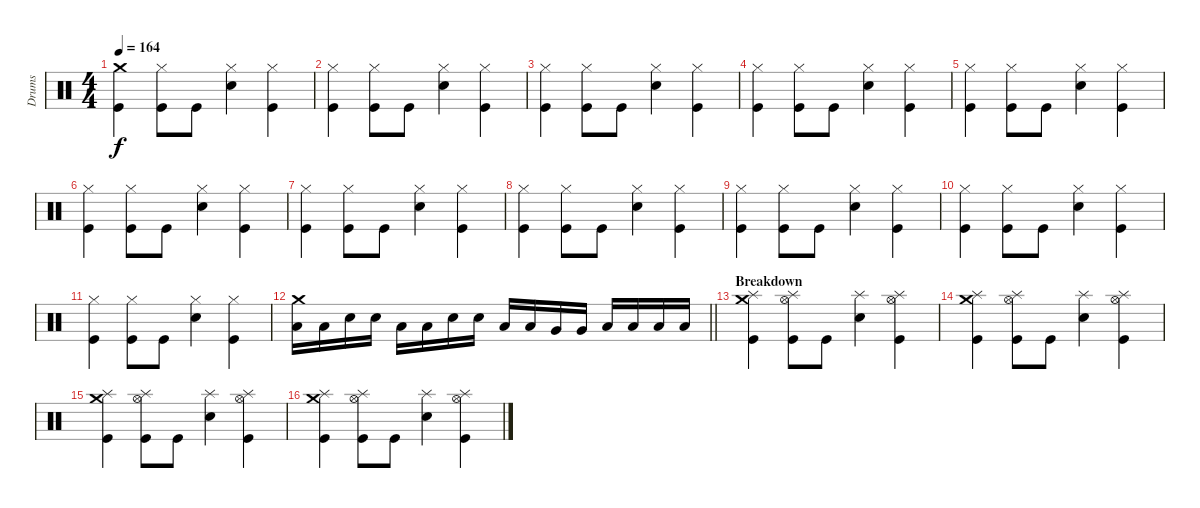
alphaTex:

\track ("Drums" "Drums") {instrument percussion}
\staff {score}
\articulation defaults
\ts (4 4)
\section ("" "")
\tempo 164
\clef neutral
\ks c
("Crash medium (hit)" "Kick (hit)").4{dy f} ("Hi-Hat (closed)" "Kick (hit)").8 "Kick (hit)".8 ("Hi-Hat (closed)" "Electric Snare (hit)").4 ("Hi-Hat (closed)" "Kick (hit)").4 |
("Hi-Hat (closed)" "Kick (hit)").4 ("Hi-Hat (closed)" "Kick (hit)").8 "Kick (hit)".8 ("Hi-Hat (closed)" "Electric Snare (hit)").4 ("Hi-Hat (closed)" "Kick (hit)").4 |
("Hi-Hat (closed)" "Kick (hit)").4 ("Hi-Hat (closed)" "Kick (hit)").8 "Kick (hit)".8 ("Hi-Hat (closed)" "Electric Snare (hit)").4 ("Hi-Hat (closed)" "Kick (hit)").4 |
("Hi-Hat (closed)" "Kick (hit)").4 ("Hi-Hat (closed)" "Kick (hit)").8 "Kick (hit)".8 ("Hi-Hat (closed)" "Electric Snare (hit)").4 ("Hi-Hat (closed)" "Kick (hit)").4 |
("Hi-Hat (closed)" "Kick (hit)").4 ("Hi-Hat (closed)" "Kick (hit)").8 "Kick (hit)".8 ("Hi-Hat (closed)" "Electric Snare (hit)").4 ("Hi-Hat (closed)" "Kick (hit)").4 |
("Hi-Hat (closed)" "Kick (hit)").4 ("Hi-Hat (closed)" "Kick (hit)").8 "Kick (hit)".8 ("Hi-Hat (closed)" "Electric Snare (hit)").4 ("Hi-Hat (closed)" "Kick (hit)").4 |
("Hi-Hat (closed)" "Kick (hit)").4 ("Hi-Hat (closed)" "Kick (hit)").8 "Kick (hit)".8 ("Hi-Hat (closed)" "Electric Snare (hit)").4 ("Hi-Hat (closed)" "Kick (hit)").4 |
("Hi-Hat (closed)" "Kick (hit)").4 ("Hi-Hat (closed)" "Kick (hit)").8 "Kick (hit)".8 ("Hi-Hat (closed)" "Electric Snare (hit)").4 ("Hi-Hat (closed)" "Kick (hit)").4 |
("Hi-Hat (closed)" "Kick (hit)").4 ("Hi-Hat (closed)" "Kick (hit)").8 "Kick (hit)".8 ("Hi-Hat (closed)" "Electric Snare (hit)").4 ("Hi-Hat (closed)" "Kick (hit)").4 |
("Hi-Hat (closed)" "Kick (hit)").4 ("Hi-Hat (closed)" "Kick (hit)").8 "Kick (hit)".8 ("Hi-Hat (closed)" "Electric Snare (hit)").4 ("Hi-Hat (closed)" "Kick (hit)").4 |
("Hi-Hat (closed)" "Kick (hit)").4 ("Hi-Hat (closed)" "Kick (hit)").8 "Kick (hit)".8 ("Hi-Hat (closed)" "Electric Snare (hit)").4 ("Hi-Hat (closed)" "Kick (hit)").4 |
\barLineRight lightlight
("Crash medium (hit)" "Low Tom (hit)").16 "Low Tom (hit)".16 "Electric Snare (hit)".16 "Electric Snare (hit)".16 "Low Tom (hit)".16 "Low Tom (hit)".16 "Electric Snare (hit)".16 "Electric Snare (hit)".16 "Low Tom (hit)".16 "Low Tom (hit)".16 "Very Low Tom (hit)".16 "Very Low Tom (hit)".16 "Low Floor Tom (hit)".16 "Low Floor Tom (hit)".16 "Low Floor Tom (hit)".16 "Low Floor Tom (hit)".16 |
\section ("" "Breakdown")
("Crash medium (hit)" "Splash (hit)" "Kick (hit)").4 ("Hi-Hat (open)" "Splash (hit)" "Kick (hit)").8 "Kick (hit)".8 ("Splash (hit)" "Electric Snare (hit)").4 ("Hi-Hat (open)" "Splash (hit)" "Kick (hit)").4 |
("Crash medium (hit)" "Splash (hit)" "Kick (hit)").4 ("Hi-Hat (open)" "Splash (hit)" "Kick (hit)").8 "Kick (hit)".8 ("Splash (hit)" "Electric Snare (hit)").4 ("Hi-Hat (open)" "Splash (hit)" "Kick (hit)").4 |
("Crash medium (hit)" "Splash (hit)" "Kick (hit)").4 ("Hi-Hat (open)" "Splash (hit)" "Kick (hit)").8 "Kick (hit)".8 ("Splash (hit)" "Electric Snare (hit)").4 ("Hi-Hat (open)" "Splash (hit)" "Kick (hit)").4 |
("Crash medium (hit)" "Splash (hit)" "Kick (hit)").4 ("Hi-Hat (open)" "Splash (hit)" "Kick (hit)").8 "Kick (hit)".8 ("Splash (hit)" "Electric Snare (hit)").4 ("Hi-Hat (open)" "Splash (hit)" "Kick (hit)").4
